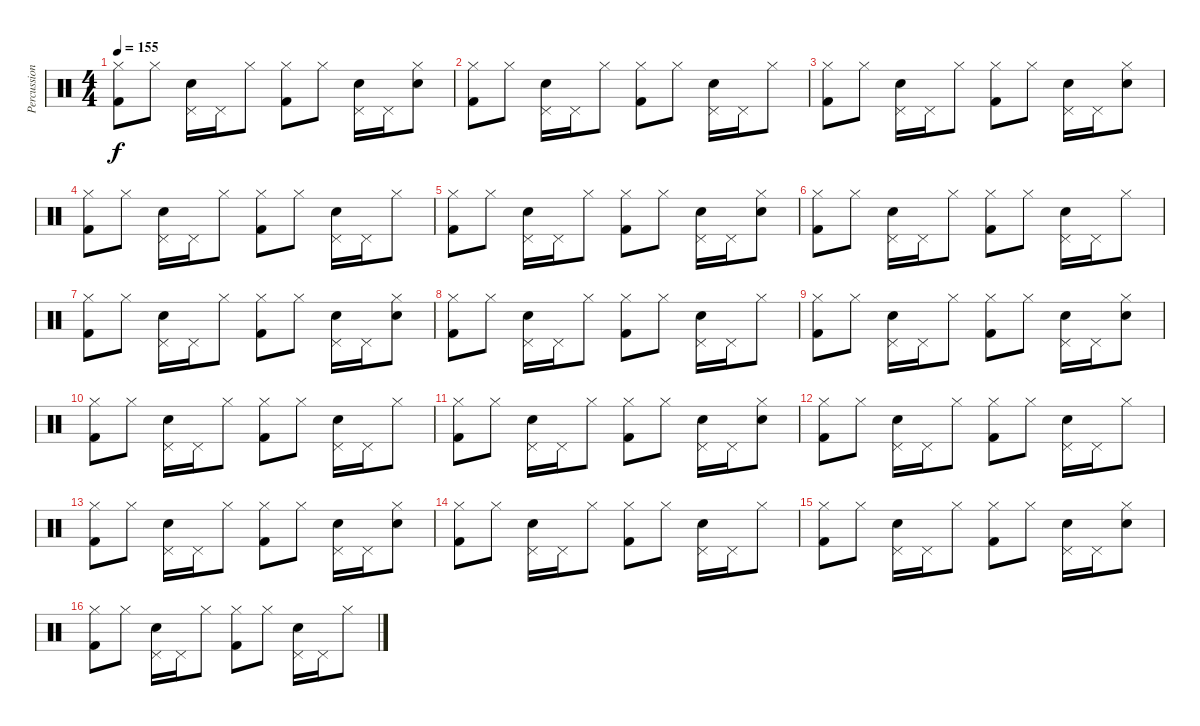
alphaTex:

\track ("Percussions" "Percussion") {instrument percussion}
\staff {score}
\articulation defaults
\ts (4 4)
\tempo 155
\clef neutral
\ks c
("Kick (hit) 2" "Hi-Hat (closed)").8{dy f} "Hi-Hat (closed)".8 ("Electric Snare (hit)" "Pedal Hi-Hat (hit)").16 "Pedal Hi-Hat (hit)".16 "Hi-Hat (closed)".8 ("Kick (hit) 2" "Hi-Hat (closed)").8 "Hi-Hat (closed)".8 ("Electric Snare (hit)" "Pedal Hi-Hat (hit)").16 "Pedal Hi-Hat (hit)".16 ("Electric Snare (hit)" "Hi-Hat (closed)").8 |
("Kick (hit) 2" "Hi-Hat (closed)").8 "Hi-Hat (closed)".8 ("Electric Snare (hit)" "Pedal Hi-Hat (hit)").16 "Pedal Hi-Hat (hit)".16 "Hi-Hat (closed)".8 ("Kick (hit) 2" "Hi-Hat (closed)").8 "Hi-Hat (closed)".8 ("Electric Snare (hit)" "Pedal Hi-Hat (hit)").16 "Pedal Hi-Hat (hit)".16 "Hi-Hat (closed)".8 |
("Kick (hit) 2" "Hi-Hat (closed)").8 "Hi-Hat (closed)".8 ("Electric Snare (hit)" "Pedal Hi-Hat (hit)").16 "Pedal Hi-Hat (hit)".16 "Hi-Hat (closed)".8 ("Kick (hit) 2" "Hi-Hat (closed)").8 "Hi-Hat (closed)".8 ("Electric Snare (hit)" "Pedal Hi-Hat (hit)").16 "Pedal Hi-Hat (hit)".16 ("Electric Snare (hit)" "Hi-Hat (closed)").8 |
("Kick (hit) 2" "Hi-Hat (closed)").8 "Hi-Hat (closed)".8 ("Electric Snare (hit)" "Pedal Hi-Hat (hit)").16 "Pedal Hi-Hat (hit)".16 "Hi-Hat (closed)".8 ("Kick (hit) 2" "Hi-Hat (closed)").8 "Hi-Hat (closed)".8 ("Electric Snare (hit)" "Pedal Hi-Hat (hit)").16 "Pedal Hi-Hat (hit)".16 "Hi-Hat (closed)".8 |
("Kick (hit) 2" "Hi-Hat (closed)").8 "Hi-Hat (closed)".8 ("Electric Snare (hit)" "Pedal Hi-Hat (hit)").16 "Pedal Hi-Hat (hit)".16 "Hi-Hat (closed)".8 ("Kick (hit) 2" "Hi-Hat (closed)").8 "Hi-Hat (closed)".8 ("Electric Snare (hit)" "Pedal Hi-Hat (hit)").16 "Pedal Hi-Hat (hit)".16 ("Electric Snare (hit)" "Hi-Hat (closed)").8 |
("Kick (hit) 2" "Hi-Hat (closed)").8 "Hi-Hat (closed)".8 ("Electric Snare (hit)" "Pedal Hi-Hat (hit)").16 "Pedal Hi-Hat (hit)".16 "Hi-Hat (closed)".8 ("Kick (hit) 2" "Hi-Hat (closed)").8 "Hi-Hat (closed)".8 ("Electric Snare (hit)" "Pedal Hi-Hat (hit)").16 "Pedal Hi-Hat (hit)".16 "Hi-Hat (closed)".8 |
("Kick (hit) 2" "Hi-Hat (closed)").8 "Hi-Hat (closed)".8 ("Electric Snare (hit)" "Pedal Hi-Hat (hit)").16 "Pedal Hi-Hat (hit)".16 "Hi-Hat (closed)".8 ("Kick (hit) 2" "Hi-Hat (closed)").8 "Hi-Hat (closed)".8 ("Electric Snare (hit)" "Pedal Hi-Hat (hit)").16 "Pedal Hi-Hat (hit)".16 ("Electric Snare (hit)" "Hi-Hat (closed)").8 |
("Kick (hit) 2" "Hi-Hat (closed)").8 "Hi-Hat (closed)".8 ("Electric Snare (hit)" "Pedal Hi-Hat (hit)").16 "Pedal Hi-Hat (hit)".16 "Hi-Hat (closed)".8 ("Kick (hit) 2" "Hi-Hat (closed)").8 "Hi-Hat (closed)".8 ("Electric Snare (hit)" "Pedal Hi-Hat (hit)").16 "Pedal Hi-Hat (hit)".16 "Hi-Hat (closed)".8 |
("Kick (hit) 2" "Hi-Hat (closed)").8 "Hi-Hat (closed)".8 ("Electric Snare (hit)" "Pedal Hi-Hat (hit)").16 "Pedal Hi-Hat (hit)".16 "Hi-Hat (closed)".8 ("Kick (hit) 2" "Hi-Hat (closed)").8 "Hi-Hat (closed)".8 ("Electric Snare (hit)" "Pedal Hi-Hat (hit)").16 "Pedal Hi-Hat (hit)".16 ("Electric Snare (hit)" "Hi-Hat (closed)").8 |
("Kick (hit) 2" "Hi-Hat (closed)").8 "Hi-Hat (closed)".8 ("Electric Snare (hit)" "Pedal Hi-Hat (hit)").16 "Pedal Hi-Hat (hit)".16 "Hi-Hat (closed)".8 ("Kick (hit) 2" "Hi-Hat (closed)").8 "Hi-Hat (closed)".8 ("Electric Snare (hit)" "Pedal Hi-Hat (hit)").16 "Pedal Hi-Hat (hit)".16 "Hi-Hat (closed)".8 |
("Kick (hit) 2" "Hi-Hat (closed)").8 "Hi-Hat (closed)".8 ("Electric Snare (hit)" "Pedal Hi-Hat (hit)").16 "Pedal Hi-Hat (hit)".16 "Hi-Hat (closed)".8 ("Kick (hit) 2" "Hi-Hat (closed)").8 "Hi-Hat (closed)".8 ("Electric Snare (hit)" "Pedal Hi-Hat (hit)").16 "Pedal Hi-Hat (hit)".16 ("Electric Snare (hit)" "Hi-Hat (closed)").8 |
("Kick (hit) 2" "Hi-Hat (closed)").8 "Hi-Hat (closed)".8 ("Electric Snare (hit)" "Pedal Hi-Hat (hit)").16 "Pedal Hi-Hat (hit)".16 "Hi-Hat (closed)".8 ("Kick (hit) 2" "Hi-Hat (closed)").8 "Hi-Hat (closed)".8 ("Electric Snare (hit)" "Pedal Hi-Hat (hit)").16 "Pedal Hi-Hat (hit)".16 "Hi-Hat (closed)".8 |
("Kick (hit) 2" "Hi-Hat (closed)").8 "Hi-Hat (closed)".8 ("Electric Snare (hit)" "Pedal Hi-Hat (hit)").16 "Pedal Hi-Hat (hit)".16 "Hi-Hat (closed)".8 ("Kick (hit) 2" "Hi-Hat (closed)").8 "Hi-Hat (closed)".8 ("Electric Snare (hit)" "Pedal Hi-Hat (hit)").16 "Pedal Hi-Hat (hit)".16 ("Electric Snare (hit)" "Hi-Hat (closed)").8 |
("Kick (hit) 2" "Hi-Hat (closed)").8 "Hi-Hat (closed)".8 ("Electric Snare (hit)" "Pedal Hi-Hat (hit)").16 "Pedal Hi-Hat (hit)".16 "Hi-Hat (closed)".8 ("Kick (hit) 2" "Hi-Hat (closed)").8 "Hi-Hat (closed)".8 ("Electric Snare (hit)" "Pedal Hi-Hat (hit)").16 "Pedal Hi-Hat (hit)".16 "Hi-Hat (closed)".8 |
("Kick (hit) 2" "Hi-Hat (closed)").8 "Hi-Hat (closed)".8 ("Electric Snare (hit)" "Pedal Hi-Hat (hit)").16 "Pedal Hi-Hat (hit)".16 "Hi-Hat (closed)".8 ("Kick (hit) 2" "Hi-Hat (closed)").8 "Hi-Hat (closed)".8 ("Electric Snare (hit)" "Pedal Hi-Hat (hit)").16 "Pedal Hi-Hat (hit)".16 ("Electric Snare (hit)" "Hi-Hat (closed)").8 |
("Kick (hit) 2" "Hi-Hat (closed)").8 "Hi-Hat (closed)".8 ("Electric Snare (hit)" "Pedal Hi-Hat (hit)").16 "Pedal Hi-Hat (hit)".16 "Hi-Hat (closed)".8 ("Kick (hit) 2" "Hi-Hat (closed)").8 "Hi-Hat (closed)".8 ("Electric Snare (hit)" "Pedal Hi-Hat (hit)").16 "Pedal Hi-Hat (hit)".16 "Hi-Hat (closed)".8
